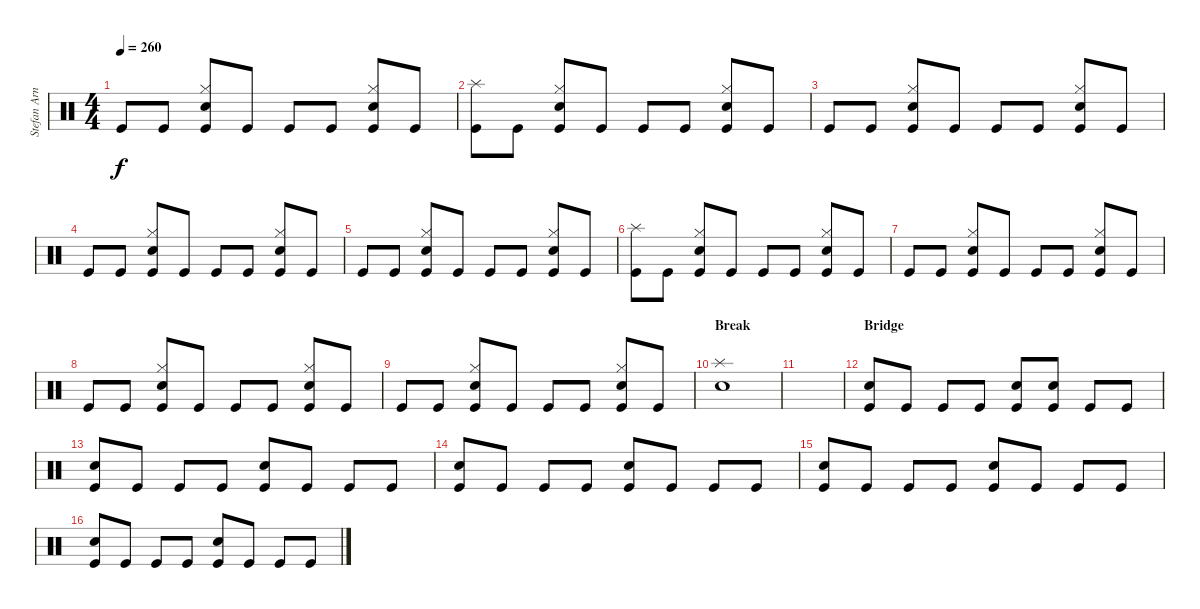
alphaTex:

\track ("Stefan Arnold" "Stefan Arn") {instrument percussion}
\staff {score}
\articulation defaults
\ts (4 4)
\tempo 260
\clef neutral
\ks c "Kick (hit)".8{dy f} "Kick (hit)".8
("Hi-Hat (closed)" "Electric Snare (hit)" "Kick (hit)").8 "Kick (hit)".8 "Kick (hit)".8 "Kick (hit)".8 ("Hi-Hat (closed)" "Electric Snare (hit)" "Kick (hit)").8 "Kick (hit)".8 |
("Splash (hit)" "Kick (hit)").8 "Kick (hit)".8 ("Hi-Hat (closed)" "Electric Snare (hit)" "Kick (hit)").8 "Kick (hit)".8 "Kick (hit)".8 "Kick (hit)".8 ("Hi-Hat (closed)" "Electric Snare (hit)" "Kick (hit)").8 "Kick (hit)".8 |
"Kick (hit)".8 "Kick (hit)".8 ("Hi-Hat (closed)" "Electric Snare (hit)" "Kick (hit)").8 "Kick (hit)".8 "Kick (hit)".8 "Kick (hit)".8 ("Hi-Hat (closed)" "Electric Snare (hit)" "Kick (hit)").8 "Kick (hit)".8 |
"Kick (hit)".8 "Kick (hit)".8 ("Hi-Hat (closed)" "Electric Snare (hit)" "Kick (hit)").8 "Kick (hit)".8 "Kick (hit)".8 "Kick (hit)".8 ("Hi-Hat (closed)" "Electric Snare (hit)" "Kick (hit)").8 "Kick (hit)".8 |
"Kick (hit)".8 "Kick (hit)".8 ("Hi-Hat (closed)" "Electric Snare (hit)" "Kick (hit)").8 "Kick (hit)".8 "Kick (hit)".8 "Kick (hit)".8 ("Hi-Hat (closed)" "Electric Snare (hit)" "Kick (hit)").8 "Kick (hit)".8 |
("Splash (hit)" "Kick (hit)").8 "Kick (hit)".8 ("Hi-Hat (closed)" "Electric Snare (hit)" "Kick (hit)").8 "Kick (hit)".8 "Kick (hit)".8 "Kick (hit)".8 ("Hi-Hat (closed)" "Electric Snare (hit)" "Kick (hit)").8 "Kick (hit)".8 |
"Kick (hit)".8 "Kick (hit)".8 ("Hi-Hat (closed)" "Electric Snare (hit)" "Kick (hit)").8 "Kick (hit)".8 "Kick (hit)".8 "Kick (hit)".8 ("Hi-Hat (closed)" "Electric Snare (hit)" "Kick (hit)").8 "Kick (hit)".8 |
"Kick (hit)".8 "Kick (hit)".8 ("Hi-Hat (closed)" "Electric Snare (hit)" "Kick (hit)").8 "Kick (hit)".8 "Kick (hit)".8 "Kick (hit)".8 ("Hi-Hat (closed)" "Electric Snare (hit)" "Kick (hit)").8 "Kick (hit)".8 |
"Kick (hit)".8 "Kick (hit)".8 ("Hi-Hat (closed)" "Electric Snare (hit)" "Kick (hit)").8 "Kick (hit)".8 "Kick (hit)".8 "Kick (hit)".8 ("Hi-Hat (closed)" "Electric Snare (hit)" "Kick (hit)").8 "Kick (hit)".8 |
\section ("" "Break")
("Electric Snare (hit)" "Splash (hit)").1 |
|
\section ("" "Bridge")
("Electric Snare (hit)" "Kick (hit)").8 "Kick (hit)".8 "Kick (hit)".8 "Kick (hit)".8 ("Electric Snare (hit)" "Kick (hit)").8 ("Electric Snare (hit)" "Kick (hit)").8 "Kick (hit)".8 "Kick (hit)".8 |
("Electric Snare (hit)" "Kick (hit)").8 "Kick (hit)".8 "Kick (hit)".8 "Kick (hit)".8 ("Electric Snare (hit)" "Kick (hit)").8 "Kick (hit)".8 "Kick (hit)".8 "Kick (hit)".8 |
("Electric Snare (hit)" "Kick (hit)").8 "Kick (hit)".8 "Kick (hit)".8 "Kick (hit)".8 ("Electric Snare (hit)" "Kick (hit)").8 "Kick (hit)".8 "Kick (hit)".8 "Kick (hit)".8 |
("Electric Snare (hit)" "Kick (hit)").8 "Kick (hit)".8 "Kick (hit)".8 "Kick (hit)".8 ("Electric Snare (hit)" "Kick (hit)").8 "Kick (hit)".8 "Kick (hit)".8 "Kick (hit)".8 |
("Electric Snare (hit)" "Kick (hit)").8 "Kick (hit)".8 "Kick (hit)".8 "Kick (hit)".8 ("Electric Snare (hit)" "Kick (hit)").8 "Kick (hit)".8 "Kick (hit)".8 "Kick (hit)".8
